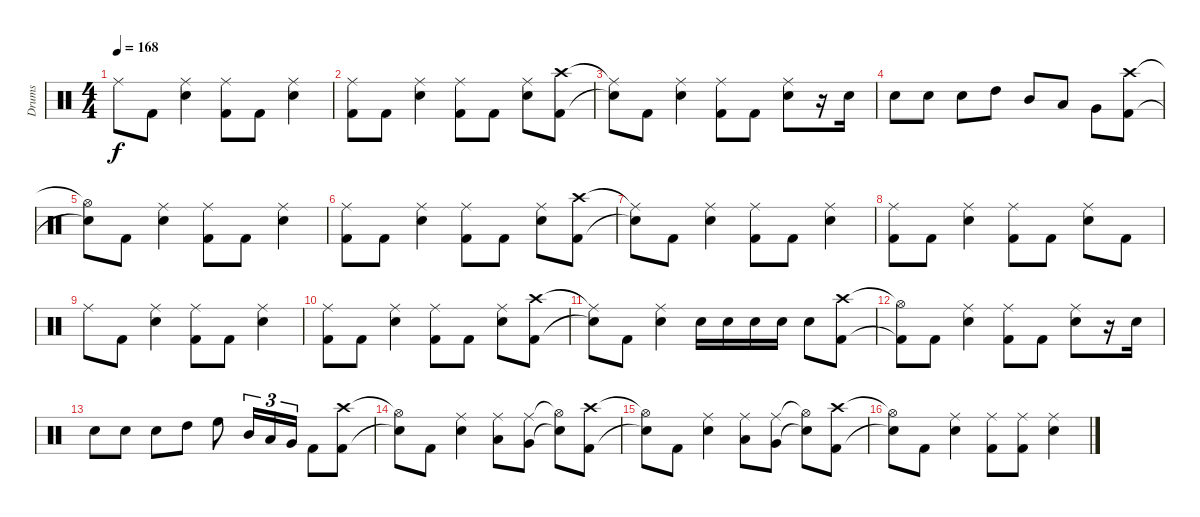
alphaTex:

\track ("Drums" "Drums") {instrument percussion}
\staff {score}
\articulation defaults
\ts (4 4)
\tempo 168
\clef neutral
\ks c "Ride (middle)".8{dy f} "Kick (hit) 2".8
("Ride (middle)" "Electric Snare (hit)").4 ("Ride (middle)" "Kick (hit) 2").8 "Kick (hit) 2".8 ("Ride (middle)" "Electric Snare (hit)").4 |
("Ride (middle)" "Kick (hit) 2").8 "Kick (hit) 2".8 ("Ride (middle)" "Electric Snare (hit)").4 ("Ride (middle)" "Kick (hit) 2").8 "Kick (hit) 2".8 ("Ride (middle)" "Electric Snare (hit)").8 ("Crash high (hit)" "Kick (hit) 2").8 |
("Ride (middle)"{t} "Snare (hit)"{t}).8 "Kick (hit) 2".8 ("Ride (middle)" "Electric Snare (hit)").4 ("Ride (middle)" "Kick (hit) 2").8 "Kick (hit) 2".8 ("Ride (middle)" "Electric Snare (hit)").8 r.16 "Electric Snare (hit)".16 |
"Electric Snare (hit)".8 "Electric Snare (hit)".8 "Electric Snare (hit)".8 "High Tom (hit)".8 "Mid Tom (hit)".8 "Low Tom (hit)".8 "Very Low Tom (hit)".8 ("Crash high (hit)" "Kick (hit) 2").8 |
("Hi-Hat (open)"{t} "Snare (hit)"{t}).8 "Kick (hit) 2".8 ("Ride (middle)" "Electric Snare (hit)").4 ("Ride (middle)" "Kick (hit) 2").8 "Kick (hit) 2".8 ("Ride (middle)" "Electric Snare (hit)").4 |
("Ride (middle)" "Kick (hit) 2").8 "Kick (hit) 2".8 ("Ride (middle)" "Electric Snare (hit)").4 ("Ride (middle)" "Kick (hit) 2").8 "Kick (hit) 2".8 ("Ride (middle)" "Electric Snare (hit)").8 ("Crash high (hit)" "Kick (hit) 2").8 |
("Ride (middle)"{t} "Snare (hit)"{t}).8 "Kick (hit) 2".8 ("Ride (middle)" "Electric Snare (hit)").4 ("Ride (middle)" "Kick (hit) 2").8 "Kick (hit) 2".8 ("Ride (middle)" "Electric Snare (hit)").4 |
("Ride (middle)" "Kick (hit) 2").8 "Kick (hit) 2".8 ("Ride (middle)" "Electric Snare (hit)").4 ("Ride (middle)" "Kick (hit) 2").8 "Kick (hit) 2".8 ("Ride (middle)" "Electric Snare (hit)").8 "Kick (hit) 2".8 |
"Ride (middle)".8 "Kick (hit) 2".8 ("Ride (middle)" "Electric Snare (hit)").4 ("Ride (middle)" "Kick (hit) 2").8 "Kick (hit) 2".8 ("Ride (middle)" "Electric Snare (hit)").4 |
("Ride (middle)" "Kick (hit) 2").8 "Kick (hit) 2".8 ("Ride (middle)" "Electric Snare (hit)").4 ("Ride (middle)" "Kick (hit) 2").8 "Kick (hit) 2".8 ("Ride (middle)" "Electric Snare (hit)").8 ("Crash high (hit)" "Kick (hit) 2").8 |
("Ride (middle)"{t} "Snare (hit)"{t}).8 "Kick (hit) 2".8 ("Ride (middle)" "Electric Snare (hit)").4 "Electric Snare (hit)".16 "Electric Snare (hit)".16 "Electric Snare (hit)".16 "Electric Snare (hit)".16 "Electric Snare (hit)".8 ("Crash high (hit)" "Kick (hit) 2").8 |
("Hi-Hat (open)"{t} "Kick (hit) 2"{t}).8 "Kick (hit) 2".8 ("Ride (middle)" "Electric Snare (hit)").4 ("Ride (middle)" "Kick (hit) 2").8 "Kick (hit) 2".8 ("Ride (middle)" "Electric Snare (hit)").8 r.16 "Electric Snare (hit)".16 |
"Electric Snare (hit)".8 "Electric Snare (hit)".8 "Electric Snare (hit)".8 "High Tom (hit)".8 "High Floor Tom (hit)".8 "Mid Tom (hit)".16{tu (3 2)} "Low Tom (hit)".16{tu (3 2)} "Very Low Tom (hit)".16{tu (3 2)} "Kick (hit) 2".8 ("Crash high (hit)" "Kick (hit) 2").8 |
("Hi-Hat (open)"{t} "Snare (hit)"{t}).8 "Kick (hit) 2".8 ("Ride (middle)" "Electric Snare (hit)").4 ("Ride (middle)" "Low Tom (hit)").8 ("Ride (middle)" "Very Low Tom (hit)").8 ("Hi-Hat (open)"{t} "Electric Snare (hit)"{t}).8 ("Crash high (hit)" "Kick (hit) 2").8 |
("Hi-Hat (open)"{t} "Snare (hit)"{t}).8 "Kick (hit) 2".8 ("Ride (middle)" "Electric Snare (hit)").4 ("Ride (middle)" "Low Tom (hit)").8 ("Ride (middle)" "Very Low Tom (hit)").8 ("Hi-Hat (open)"{t} "Electric Snare (hit)"{t}).8 ("Crash high (hit)" "Kick (hit) 2").8 |
("Hi-Hat (open)"{t} "Snare (hit)"{t}).8 "Kick (hit) 2".8 ("Ride (middle)" "Electric Snare (hit)").4 ("Ride (middle)" "Kick (hit) 2").8 ("Ride (middle)" "Kick (hit) 2").8 ("Ride (middle)" "Electric Snare (hit)").4
